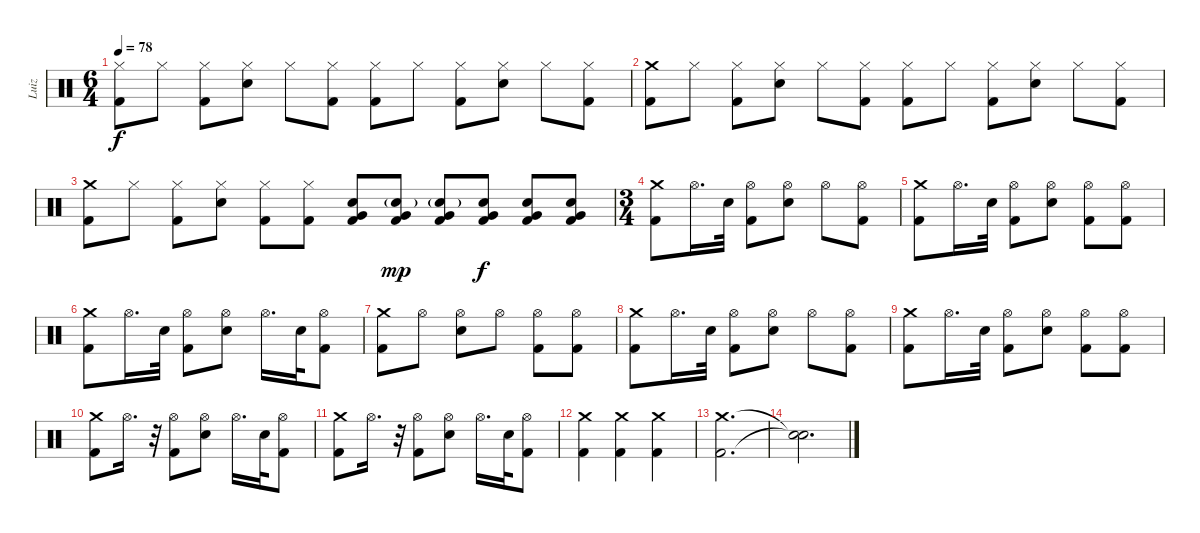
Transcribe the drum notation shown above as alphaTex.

\track ("Luiz" "Luiz") {instrument percussion}
\staff {score}
\articulation defaults
\ts (6 4)
\tempo 78
\clef neutral
\ks c
("Hi-Hat (closed)" "Kick (hit) 2").8{dy f} "Hi-Hat (closed)".8 ("Hi-Hat (closed)" "Kick (hit) 2").8 ("Hi-Hat (closed)" "Snare (hit) 2").8 "Hi-Hat (closed)".8 ("Hi-Hat (closed)" "Kick (hit) 2").8 ("Hi-Hat (closed)" "Kick (hit) 2").8 "Hi-Hat (closed)".8 ("Hi-Hat (closed)" "Kick (hit) 2").8 ("Hi-Hat (closed)" "Snare (hit) 2").8 "Hi-Hat (closed)".8 ("Hi-Hat (closed)" "Kick (hit) 2").8 |
("Crash medium (hit)" "Kick (hit) 2").8 "Hi-Hat (closed)".8 ("Hi-Hat (closed)" "Kick (hit) 2").8 ("Hi-Hat (closed)" "Snare (hit) 2").8 "Hi-Hat (closed)".8 ("Hi-Hat (closed)" "Kick (hit) 2").8 ("Hi-Hat (closed)" "Kick (hit) 2").8 "Hi-Hat (closed)".8 ("Hi-Hat (closed)" "Kick (hit) 2").8 ("Hi-Hat (closed)" "Snare (hit) 2").8 "Hi-Hat (closed)".8 ("Hi-Hat (closed)" "Kick (hit) 2").8 |
("Crash medium (hit)" "Kick (hit) 2").8 "Hi-Hat (closed)".8 ("Hi-Hat (closed)" "Kick (hit) 2").8 ("Hi-Hat (closed)" "Snare (hit) 2").8 ("Hi-Hat (closed)" "Kick (hit) 2").8 ("Hi-Hat (closed)" "Kick (hit) 2").8 ("Snare (hit) 2" "Very Low Tom (hit)" "Kick (hit) 2").8 ("Snare (hit) 2"{g} "Very Low Tom (hit)" "Kick (hit) 2").8{dy mp} ("Snare (hit) 2"{g} "Very Low Tom (hit)" "Kick (hit) 2").8 ("Snare (hit) 2" "Very Low Tom (hit)" "Kick (hit) 2").8{dy f} ("Snare (hit) 2" "Very Low Tom (hit)" "Kick (hit) 2").8 ("Snare (hit) 2" "Very Low Tom (hit)" "Kick (hit) 2").8 |
\ts (3 4)
("Crash medium (hit)" "Kick (hit) 2").8 "Hi-Hat (open)".16{d} "Snare (hit) 2".32 ("Hi-Hat (open)" "Kick (hit) 2").8 ("Hi-Hat (open)" "Snare (hit) 2").8 "Hi-Hat (open)".8 ("Hi-Hat (open)" "Kick (hit) 2").8 |
("Crash medium (hit)" "Kick (hit) 2").8 "Hi-Hat (open)".16{d} "Snare (hit) 2".32 ("Hi-Hat (open)" "Kick (hit) 2").8 ("Hi-Hat (open)" "Snare (hit) 2").8 ("Hi-Hat (open)" "Kick (hit) 2").8 ("Hi-Hat (open)" "Kick (hit) 2").8 |
("Crash medium (hit)" "Kick (hit) 2").8 "Hi-Hat (open)".16{d} "Snare (hit) 2".32 ("Hi-Hat (open)" "Kick (hit) 2").8 ("Hi-Hat (open)" "Snare (hit) 2").8 "Hi-Hat (open)".16{d} "Snare (hit) 2".32 ("Hi-Hat (open)" "Kick (hit) 2").8 |
("Crash medium (hit)" "Kick (hit) 2").8 "Hi-Hat (open)".8 ("Hi-Hat (open)" "Snare (hit) 2").8 "Hi-Hat (open)".8 ("Hi-Hat (open)" "Kick (hit) 2").8 ("Hi-Hat (open)" "Kick (hit) 2").8 |
("Crash medium (hit)" "Kick (hit) 2").8 "Hi-Hat (open)".16{d} "Snare (hit) 2".32 ("Hi-Hat (open)" "Kick (hit) 2").8 ("Hi-Hat (open)" "Snare (hit) 2").8 "Hi-Hat (open)".8 ("Hi-Hat (open)" "Kick (hit) 2").8 |
("Crash medium (hit)" "Kick (hit) 2").8 "Hi-Hat (open)".16{d} "Snare (hit) 2".32 ("Hi-Hat (open)" "Kick (hit) 2").8 ("Hi-Hat (open)" "Snare (hit) 2").8 ("Hi-Hat (open)" "Kick (hit) 2").8 ("Hi-Hat (open)" "Kick (hit) 2").8 |
("Crash medium (hit)" "Kick (hit) 2").8 "Hi-Hat (open)".16{d} r.32 ("Hi-Hat (open)" "Kick (hit) 2").8 ("Hi-Hat (open)" "Snare (hit) 2").8 "Hi-Hat (open)".16{d} "Snare (hit) 2".32 ("Hi-Hat (open)" "Kick (hit) 2").8 |
("Crash medium (hit)" "Kick (hit) 2").8 "Hi-Hat (open)".16{d} r.32 ("Hi-Hat (open)" "Kick (hit) 2").8 ("Hi-Hat (open)" "Snare (hit) 2").8 "Hi-Hat (open)".16{d} "Snare (hit) 2".32 ("Hi-Hat (open)" "Kick (hit) 2").8 |
("Crash medium (hit)" "Kick (hit) 2").4 ("Crash medium (hit)" "Kick (hit) 2").4 ("Crash medium (hit)" "Kick (hit) 2").4 |
("Crash medium (hit)" "Kick (hit) 2").2{d} |
("Snare (hit)"{t} "Snare (hit)"{t}).2{d}
